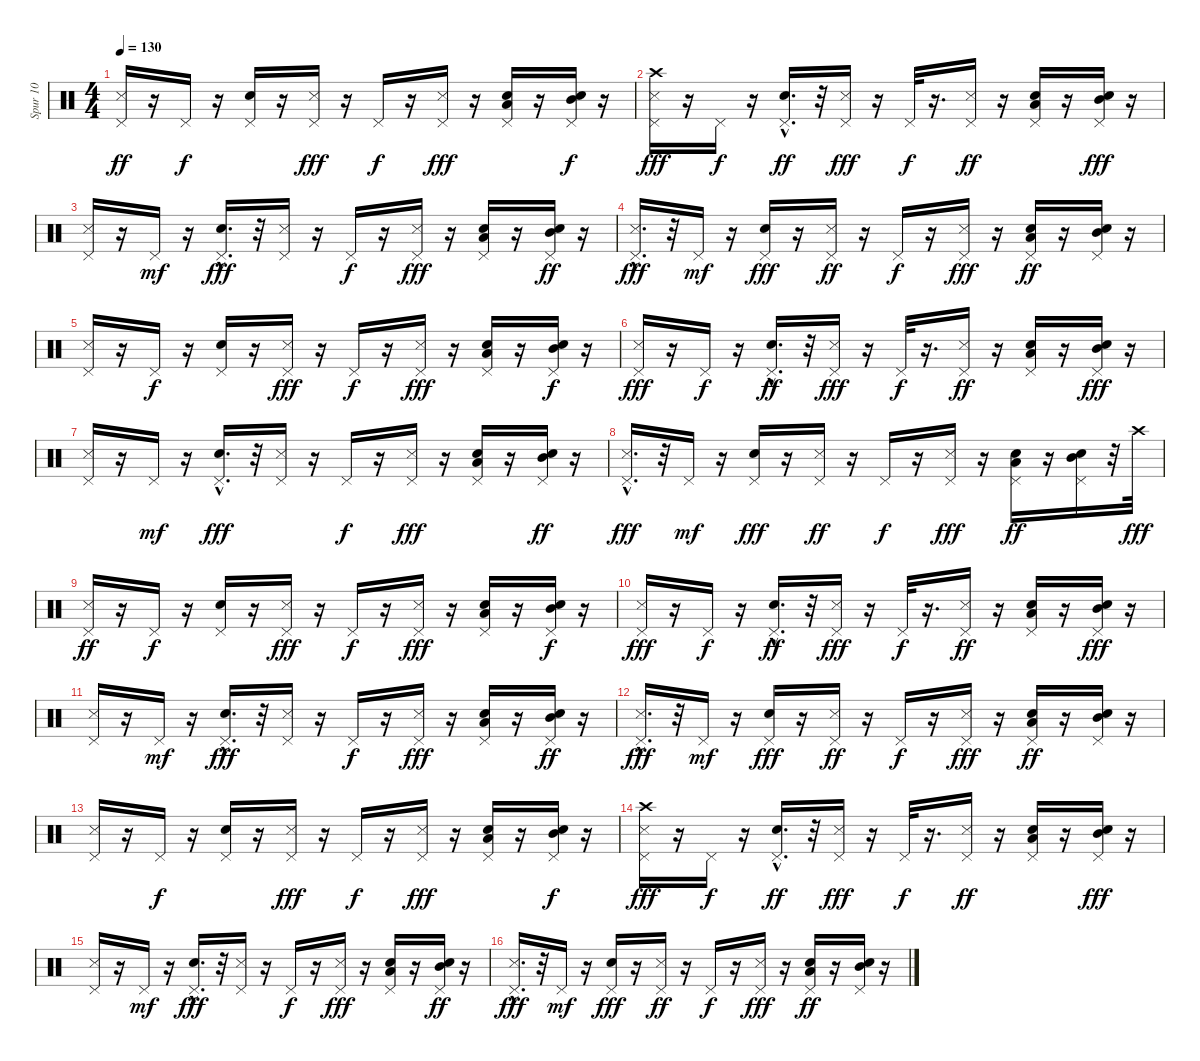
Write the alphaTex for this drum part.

\track ("Spur 10" "Spur 10") {instrument percussion}
\staff {score}
\articulation defaults
\ts (4 4)
\tempo 130
\clef neutral
\ks c
("Metronome (hit)" "Pedal Hi-Hat (hit)").16{dy ff} r.16 "Pedal Hi-Hat (hit)".16{dy f} r.16 ("Snare (hit) 2" "Pedal Hi-Hat (hit)").16 r.16 ("Metronome (hit)" "Pedal Hi-Hat (hit)").16{dy fff} r.16 "Pedal Hi-Hat (hit)".16{dy f} r.16 ("Metronome (hit)" "Pedal Hi-Hat (hit)").16{dy fff} r.16 ("Snare (hit) 2" "Low Tom (hit)" "Pedal Hi-Hat (hit)").16 r.16 ("Snare (hit) 2" "Mid Tom (hit)" "Pedal Hi-Hat (hit)").16{dy f} r.16 |
("Crash high (hit)" "Pedal Hi-Hat (hit)" "Metronome (hit)").16{dy fff} r.16 "Pedal Hi-Hat (hit)".16{dy f} r.16 ("Snare (hit) 2"{hac} "Pedal Hi-Hat (hit)").16{d dy ff} r.32 ("Metronome (hit)" "Pedal Hi-Hat (hit)").16{dy fff} r.16 "Pedal Hi-Hat (hit)".32{dy f} r.16{d} ("Metronome (hit)" "Pedal Hi-Hat (hit)").16{dy ff} r.16 ("Low Tom (hit)" "Snare (hit) 2" "Pedal Hi-Hat (hit)").16 r.16 ("Mid Tom (hit)" "Snare (hit) 2" "Pedal Hi-Hat (hit)").16{dy fff} r.16 |
("Pedal Hi-Hat (hit)" "Metronome (hit)").16 r.16 "Pedal Hi-Hat (hit)".16{dy mf} r.16 ("Pedal Hi-Hat (hit)" "Snare (hit) 2"{hac}).16{d dy fff} r.32 ("Pedal Hi-Hat (hit)" "Metronome (hit)").16 r.16 "Pedal Hi-Hat (hit)".16{dy f} r.16 ("Pedal Hi-Hat (hit)" "Metronome (hit)").16{dy fff} r.16 ("Low Tom (hit)" "Pedal Hi-Hat (hit)" "Snare (hit) 2").16 r.16 ("Mid Tom (hit)" "Pedal Hi-Hat (hit)" "Snare (hit) 2").16{dy ff} r.16 |
("Pedal Hi-Hat (hit)" "Metronome (hit)"{hac}).16{d dy fff} r.32 "Pedal Hi-Hat (hit)".16{dy mf} r.16 ("Pedal Hi-Hat (hit)" "Snare (hit) 2").16{dy fff} r.16 ("Metronome (hit)" "Pedal Hi-Hat (hit)").16{dy ff} r.16 "Pedal Hi-Hat (hit)".16{dy f} r.16 ("Metronome (hit)" "Pedal Hi-Hat (hit)").16{dy fff} r.16 ("Snare (hit) 2" "Low Tom (hit)" "Pedal Hi-Hat (hit)").16{dy ff} r.16 ("Snare (hit) 2" "Mid Tom (hit)" "Pedal Hi-Hat (hit)").16 r.16 |
("Metronome (hit)" "Pedal Hi-Hat (hit)").16 r.16 "Pedal Hi-Hat (hit)".16{dy f} r.16 ("Snare (hit) 2" "Pedal Hi-Hat (hit)").16 r.16 ("Metronome (hit)" "Pedal Hi-Hat (hit)").16{dy fff} r.16 "Pedal Hi-Hat (hit)".16{dy f} r.16 ("Metronome (hit)" "Pedal Hi-Hat (hit)").16{dy fff} r.16 ("Snare (hit) 2" "Low Tom (hit)" "Pedal Hi-Hat (hit)").16 r.16 ("Snare (hit) 2" "Mid Tom (hit)" "Pedal Hi-Hat (hit)").16{dy f} r.16 |
("Pedal Hi-Hat (hit)" "Metronome (hit)").16{dy fff} r.16 "Pedal Hi-Hat (hit)".16{dy f} r.16 ("Snare (hit) 2"{hac} "Pedal Hi-Hat (hit)").16{d dy ff} r.32 ("Metronome (hit)" "Pedal Hi-Hat (hit)").16{dy fff} r.16 "Pedal Hi-Hat (hit)".32{dy f} r.16{d} ("Metronome (hit)" "Pedal Hi-Hat (hit)").16{dy ff} r.16 ("Low Tom (hit)" "Snare (hit) 2" "Pedal Hi-Hat (hit)").16 r.16 ("Mid Tom (hit)" "Snare (hit) 2" "Pedal Hi-Hat (hit)").16{dy fff} r.16 |
("Pedal Hi-Hat (hit)" "Metronome (hit)").16 r.16 "Pedal Hi-Hat (hit)".16{dy mf} r.16 ("Pedal Hi-Hat (hit)" "Snare (hit) 2"{hac}).16{d dy fff} r.32 ("Pedal Hi-Hat (hit)" "Metronome (hit)").16 r.16 "Pedal Hi-Hat (hit)".16{dy f} r.16 ("Pedal Hi-Hat (hit)" "Metronome (hit)").16{dy fff} r.16 ("Low Tom (hit)" "Pedal Hi-Hat (hit)" "Snare (hit) 2").16 r.16 ("Mid Tom (hit)" "Pedal Hi-Hat (hit)" "Snare (hit) 2").16{dy ff} r.16 |
("Pedal Hi-Hat (hit)" "Metronome (hit)"{hac}).16{d dy fff} r.32 "Pedal Hi-Hat (hit)".16{dy mf} r.16 ("Pedal Hi-Hat (hit)" "Snare (hit) 2").16{dy fff} r.16 ("Metronome (hit)" "Pedal Hi-Hat (hit)").16{dy ff} r.16 "Pedal Hi-Hat (hit)".16{dy f} r.16 ("Metronome (hit)" "Pedal Hi-Hat (hit)").16{dy fff} r.16 ("Snare (hit) 2" "Low Tom (hit)" "Pedal Hi-Hat (hit)").16{dy ff} r.16 ("Snare (hit) 2" "Mid Tom (hit)" "Pedal Hi-Hat (hit)").16 r.32 "Crash high (hit)".32{dy fff} |
("Metronome (hit)" "Pedal Hi-Hat (hit)").16{dy ff} r.16 "Pedal Hi-Hat (hit)".16{dy f} r.16 ("Snare (hit) 2" "Pedal Hi-Hat (hit)").16 r.16 ("Metronome (hit)" "Pedal Hi-Hat (hit)").16{dy fff} r.16 "Pedal Hi-Hat (hit)".16{dy f} r.16 ("Metronome (hit)" "Pedal Hi-Hat (hit)").16{dy fff} r.16 ("Snare (hit) 2" "Low Tom (hit)" "Pedal Hi-Hat (hit)").16 r.16 ("Snare (hit) 2" "Mid Tom (hit)" "Pedal Hi-Hat (hit)").16{dy f} r.16 |
("Pedal Hi-Hat (hit)" "Metronome (hit)").16{dy fff} r.16 "Pedal Hi-Hat (hit)".16{dy f} r.16 ("Snare (hit) 2"{hac} "Pedal Hi-Hat (hit)").16{d dy ff} r.32 ("Metronome (hit)" "Pedal Hi-Hat (hit)").16{dy fff} r.16 "Pedal Hi-Hat (hit)".32{dy f} r.16{d} ("Metronome (hit)" "Pedal Hi-Hat (hit)").16{dy ff} r.16 ("Low Tom (hit)" "Snare (hit) 2" "Pedal Hi-Hat (hit)").16 r.16 ("Mid Tom (hit)" "Snare (hit) 2" "Pedal Hi-Hat (hit)").16{dy fff} r.16 |
("Pedal Hi-Hat (hit)" "Metronome (hit)").16 r.16 "Pedal Hi-Hat (hit)".16{dy mf} r.16 ("Pedal Hi-Hat (hit)" "Snare (hit) 2"{hac}).16{d dy fff} r.32 ("Pedal Hi-Hat (hit)" "Metronome (hit)").16 r.16 "Pedal Hi-Hat (hit)".16{dy f} r.16 ("Pedal Hi-Hat (hit)" "Metronome (hit)").16{dy fff} r.16 ("Low Tom (hit)" "Pedal Hi-Hat (hit)" "Snare (hit) 2").16 r.16 ("Mid Tom (hit)" "Pedal Hi-Hat (hit)" "Snare (hit) 2").16{dy ff} r.16 |
("Pedal Hi-Hat (hit)" "Metronome (hit)"{hac}).16{d dy fff} r.32 "Pedal Hi-Hat (hit)".16{dy mf} r.16 ("Pedal Hi-Hat (hit)" "Snare (hit) 2").16{dy fff} r.16 ("Metronome (hit)" "Pedal Hi-Hat (hit)").16{dy ff} r.16 "Pedal Hi-Hat (hit)".16{dy f} r.16 ("Metronome (hit)" "Pedal Hi-Hat (hit)").16{dy fff} r.16 ("Snare (hit) 2" "Low Tom (hit)" "Pedal Hi-Hat (hit)").16{dy ff} r.16 ("Snare (hit) 2" "Mid Tom (hit)" "Pedal Hi-Hat (hit)").16 r.16 |
("Metronome (hit)" "Pedal Hi-Hat (hit)").16 r.16 "Pedal Hi-Hat (hit)".16{dy f} r.16 ("Snare (hit) 2" "Pedal Hi-Hat (hit)").16 r.16 ("Metronome (hit)" "Pedal Hi-Hat (hit)").16{dy fff} r.16 "Pedal Hi-Hat (hit)".16{dy f} r.16 ("Metronome (hit)" "Pedal Hi-Hat (hit)").16{dy fff} r.16 ("Snare (hit) 2" "Low Tom (hit)" "Pedal Hi-Hat (hit)").16 r.16 ("Snare (hit) 2" "Mid Tom (hit)" "Pedal Hi-Hat (hit)").16{dy f} r.16 |
("Crash high (hit)" "Pedal Hi-Hat (hit)" "Metronome (hit)").16{dy fff} r.16 "Pedal Hi-Hat (hit)".16{dy f} r.16 ("Snare (hit) 2"{hac} "Pedal Hi-Hat (hit)").16{d dy ff} r.32 ("Metronome (hit)" "Pedal Hi-Hat (hit)").16{dy fff} r.16 "Pedal Hi-Hat (hit)".32{dy f} r.16{d} ("Metronome (hit)" "Pedal Hi-Hat (hit)").16{dy ff} r.16 ("Low Tom (hit)" "Snare (hit) 2" "Pedal Hi-Hat (hit)").16 r.16 ("Mid Tom (hit)" "Snare (hit) 2" "Pedal Hi-Hat (hit)").16{dy fff} r.16 |
("Pedal Hi-Hat (hit)" "Metronome (hit)").16 r.16 "Pedal Hi-Hat (hit)".16{dy mf} r.16 ("Pedal Hi-Hat (hit)" "Snare (hit) 2"{hac}).16{d dy fff} r.32 ("Pedal Hi-Hat (hit)" "Metronome (hit)").16 r.16 "Pedal Hi-Hat (hit)".16{dy f} r.16 ("Pedal Hi-Hat (hit)" "Metronome (hit)").16{dy fff} r.16 ("Low Tom (hit)" "Pedal Hi-Hat (hit)" "Snare (hit) 2").16 r.16 ("Mid Tom (hit)" "Pedal Hi-Hat (hit)" "Snare (hit) 2").16{dy ff} r.16 |
("Pedal Hi-Hat (hit)" "Metronome (hit)"{hac}).16{d dy fff} r.32 "Pedal Hi-Hat (hit)".16{dy mf} r.16 ("Pedal Hi-Hat (hit)" "Snare (hit) 2").16{dy fff} r.16 ("Metronome (hit)" "Pedal Hi-Hat (hit)").16{dy ff} r.16 "Pedal Hi-Hat (hit)".16{dy f} r.16 ("Metronome (hit)" "Pedal Hi-Hat (hit)").16{dy fff} r.16 ("Snare (hit) 2" "Low Tom (hit)" "Pedal Hi-Hat (hit)").16{dy ff} r.16 ("Snare (hit) 2" "Mid Tom (hit)" "Pedal Hi-Hat (hit)").16 r.16
